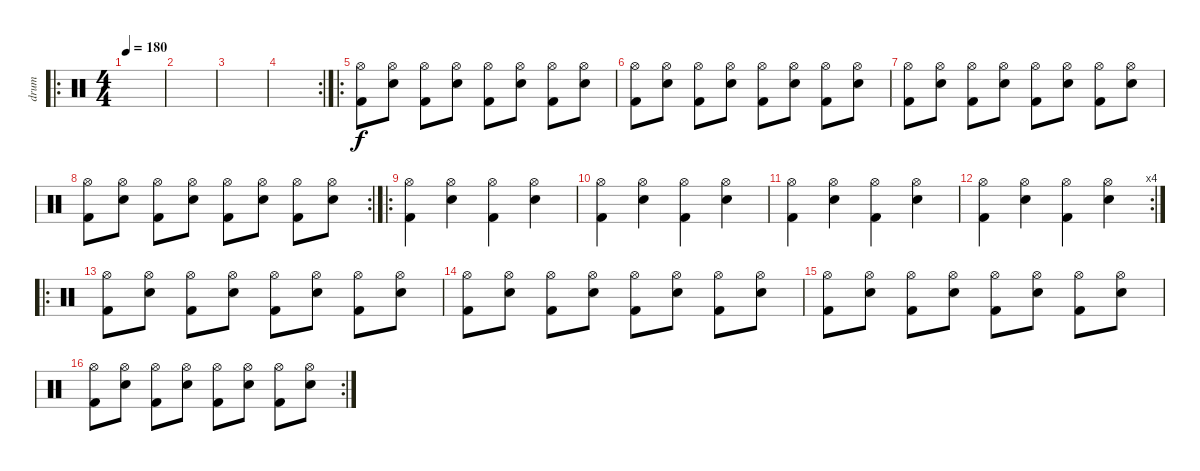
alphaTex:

\track ("drum" "drum") {instrument percussion}
\staff {score}
\articulation defaults
\ro
\ts (4 4)
\tempo 180
\clef neutral
\ks c
|
|
|
\rc 2
|
\ro
("Hi-Hat (open)" "Kick (hit) 2").8 ("Hi-Hat (open)" "Snare (hit) 2").8 ("Hi-Hat (open)" "Kick (hit) 2").8 ("Hi-Hat (open)" "Snare (hit) 2").8 ("Hi-Hat (open)" "Kick (hit) 2").8 ("Hi-Hat (open)" "Snare (hit) 2").8 ("Hi-Hat (open)" "Kick (hit) 2").8 ("Hi-Hat (open)" "Snare (hit) 2").8 |
("Hi-Hat (open)" "Kick (hit) 2").8 ("Hi-Hat (open)" "Snare (hit) 2").8 ("Hi-Hat (open)" "Kick (hit) 2").8 ("Hi-Hat (open)" "Snare (hit) 2").8 ("Hi-Hat (open)" "Kick (hit) 2").8 ("Hi-Hat (open)" "Snare (hit) 2").8 ("Hi-Hat (open)" "Kick (hit) 2").8 ("Hi-Hat (open)" "Snare (hit) 2").8 |
("Hi-Hat (open)" "Kick (hit) 2").8 ("Hi-Hat (open)" "Snare (hit) 2").8 ("Hi-Hat (open)" "Kick (hit) 2").8 ("Hi-Hat (open)" "Snare (hit) 2").8 ("Hi-Hat (open)" "Kick (hit) 2").8 ("Hi-Hat (open)" "Snare (hit) 2").8 ("Hi-Hat (open)" "Kick (hit) 2").8 ("Hi-Hat (open)" "Snare (hit) 2").8 |
\rc 2
("Hi-Hat (open)" "Kick (hit) 2").8 ("Hi-Hat (open)" "Snare (hit) 2").8 ("Hi-Hat (open)" "Kick (hit) 2").8 ("Hi-Hat (open)" "Snare (hit) 2").8 ("Hi-Hat (open)" "Kick (hit) 2").8 ("Hi-Hat (open)" "Snare (hit) 2").8 ("Hi-Hat (open)" "Kick (hit) 2").8 ("Hi-Hat (open)" "Snare (hit) 2").8 |
\ro
("Hi-Hat (open)" "Kick (hit) 2").4 ("Hi-Hat (open)" "Snare (hit) 2").4 ("Hi-Hat (open)" "Kick (hit) 2").4 ("Hi-Hat (open)" "Snare (hit) 2").4 |
("Hi-Hat (open)" "Kick (hit) 2").4 ("Hi-Hat (open)" "Snare (hit) 2").4 ("Hi-Hat (open)" "Kick (hit) 2").4 ("Hi-Hat (open)" "Snare (hit) 2").4 |
("Hi-Hat (open)" "Kick (hit) 2").4 ("Hi-Hat (open)" "Snare (hit) 2").4 ("Hi-Hat (open)" "Kick (hit) 2").4 ("Hi-Hat (open)" "Snare (hit) 2").4 |
\rc 4
("Hi-Hat (open)" "Kick (hit) 2").4 ("Hi-Hat (open)" "Snare (hit) 2").4 ("Hi-Hat (open)" "Kick (hit) 2").4 ("Hi-Hat (open)" "Snare (hit) 2").4 |
\ro
("Hi-Hat (open)" "Kick (hit) 2").8 ("Hi-Hat (open)" "Snare (hit) 2").8 ("Hi-Hat (open)" "Kick (hit) 2").8 ("Hi-Hat (open)" "Snare (hit) 2").8 ("Hi-Hat (open)" "Kick (hit) 2").8 ("Hi-Hat (open)" "Snare (hit) 2").8 ("Hi-Hat (open)" "Kick (hit) 2").8 ("Hi-Hat (open)" "Snare (hit) 2").8 |
("Hi-Hat (open)" "Kick (hit) 2").8 ("Hi-Hat (open)" "Snare (hit) 2").8 ("Hi-Hat (open)" "Kick (hit) 2").8 ("Hi-Hat (open)" "Snare (hit) 2").8 ("Hi-Hat (open)" "Kick (hit) 2").8 ("Hi-Hat (open)" "Snare (hit) 2").8 ("Hi-Hat (open)" "Kick (hit) 2").8 ("Hi-Hat (open)" "Snare (hit) 2").8 |
("Hi-Hat (open)" "Kick (hit) 2").8 ("Hi-Hat (open)" "Snare (hit) 2").8 ("Hi-Hat (open)" "Kick (hit) 2").8 ("Hi-Hat (open)" "Snare (hit) 2").8 ("Hi-Hat (open)" "Kick (hit) 2").8 ("Hi-Hat (open)" "Snare (hit) 2").8 ("Hi-Hat (open)" "Kick (hit) 2").8 ("Hi-Hat (open)" "Snare (hit) 2").8 |
\rc 2
("Hi-Hat (open)" "Kick (hit) 2").8 ("Hi-Hat (open)" "Snare (hit) 2").8 ("Hi-Hat (open)" "Kick (hit) 2").8 ("Hi-Hat (open)" "Snare (hit) 2").8 ("Hi-Hat (open)" "Kick (hit) 2").8 ("Hi-Hat (open)" "Snare (hit) 2").8 ("Hi-Hat (open)" "Kick (hit) 2").8 ("Hi-Hat (open)" "Snare (hit) 2").8
